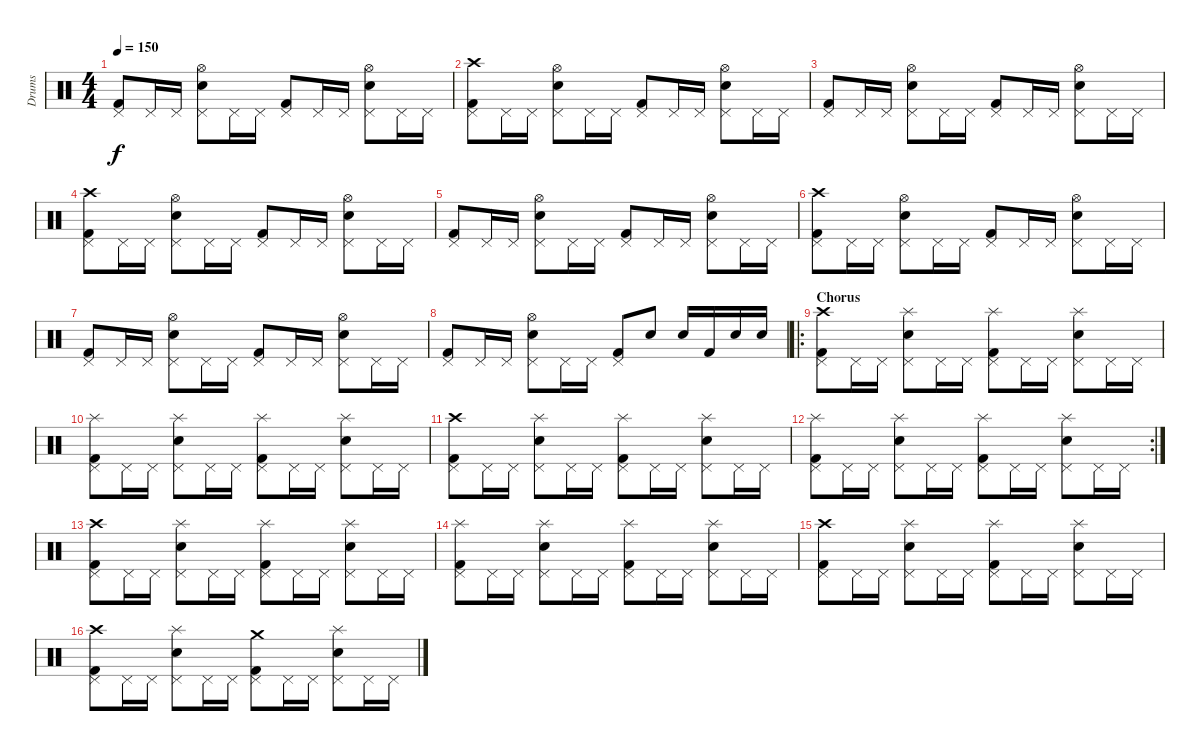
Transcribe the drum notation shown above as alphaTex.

\track ("Drums" "Drums") {instrument percussion}
\staff {score}
\articulation defaults
\ts (4 4)
\tempo 150
\clef neutral
\ks c
("Kick (hit) 2" "Pedal Hi-Hat (hit)").8{dy f} "Pedal Hi-Hat (hit)".16 "Pedal Hi-Hat (hit)".16 ("Snare (hit) 2" "Pedal Hi-Hat (hit)" "Hi-Hat (open)").8 "Pedal Hi-Hat (hit)".16 "Pedal Hi-Hat (hit)".16 ("Kick (hit) 2" "Pedal Hi-Hat (hit)").8 "Pedal Hi-Hat (hit)".16 "Pedal Hi-Hat (hit)".16 ("Snare (hit) 2" "Pedal Hi-Hat (hit)" "Hi-Hat (open)").8 "Pedal Hi-Hat (hit)".16 "Pedal Hi-Hat (hit)".16 |
("Kick (hit) 2" "Pedal Hi-Hat (hit)" "Crash high (hit)").8 "Pedal Hi-Hat (hit)".16 "Pedal Hi-Hat (hit)".16 ("Snare (hit) 2" "Pedal Hi-Hat (hit)" "Hi-Hat (open)").8 "Pedal Hi-Hat (hit)".16 "Pedal Hi-Hat (hit)".16 ("Kick (hit) 2" "Pedal Hi-Hat (hit)").8 "Pedal Hi-Hat (hit)".16 "Pedal Hi-Hat (hit)".16 ("Snare (hit) 2" "Pedal Hi-Hat (hit)" "Hi-Hat (open)").8 "Pedal Hi-Hat (hit)".16 "Pedal Hi-Hat (hit)".16 |
("Kick (hit) 2" "Pedal Hi-Hat (hit)").8 "Pedal Hi-Hat (hit)".16 "Pedal Hi-Hat (hit)".16 ("Snare (hit) 2" "Pedal Hi-Hat (hit)" "Hi-Hat (open)").8 "Pedal Hi-Hat (hit)".16 "Pedal Hi-Hat (hit)".16 ("Kick (hit) 2" "Pedal Hi-Hat (hit)").8 "Pedal Hi-Hat (hit)".16 "Pedal Hi-Hat (hit)".16 ("Snare (hit) 2" "Pedal Hi-Hat (hit)" "Hi-Hat (open)").8 "Pedal Hi-Hat (hit)".16 "Pedal Hi-Hat (hit)".16 |
("Kick (hit) 2" "Pedal Hi-Hat (hit)" "Crash high (hit)").8 "Pedal Hi-Hat (hit)".16 "Pedal Hi-Hat (hit)".16 ("Snare (hit) 2" "Pedal Hi-Hat (hit)" "Hi-Hat (open)").8 "Pedal Hi-Hat (hit)".16 "Pedal Hi-Hat (hit)".16 ("Kick (hit) 2" "Pedal Hi-Hat (hit)").8 "Pedal Hi-Hat (hit)".16 "Pedal Hi-Hat (hit)".16 ("Snare (hit) 2" "Pedal Hi-Hat (hit)" "Hi-Hat (open)").8 "Pedal Hi-Hat (hit)".16 "Pedal Hi-Hat (hit)".16 |
("Kick (hit) 2" "Pedal Hi-Hat (hit)").8 "Pedal Hi-Hat (hit)".16 "Pedal Hi-Hat (hit)".16 ("Snare (hit) 2" "Pedal Hi-Hat (hit)" "Hi-Hat (open)").8 "Pedal Hi-Hat (hit)".16 "Pedal Hi-Hat (hit)".16 ("Kick (hit) 2" "Pedal Hi-Hat (hit)").8 "Pedal Hi-Hat (hit)".16 "Pedal Hi-Hat (hit)".16 ("Snare (hit) 2" "Pedal Hi-Hat (hit)" "Hi-Hat (open)").8 "Pedal Hi-Hat (hit)".16 "Pedal Hi-Hat (hit)".16 |
("Kick (hit) 2" "Pedal Hi-Hat (hit)" "Crash high (hit)").8 "Pedal Hi-Hat (hit)".16 "Pedal Hi-Hat (hit)".16 ("Snare (hit) 2" "Pedal Hi-Hat (hit)" "Hi-Hat (open)").8 "Pedal Hi-Hat (hit)".16 "Pedal Hi-Hat (hit)".16 ("Kick (hit) 2" "Pedal Hi-Hat (hit)").8 "Pedal Hi-Hat (hit)".16 "Pedal Hi-Hat (hit)".16 ("Snare (hit) 2" "Pedal Hi-Hat (hit)" "Hi-Hat (open)").8 "Pedal Hi-Hat (hit)".16 "Pedal Hi-Hat (hit)".16 |
("Kick (hit) 2" "Pedal Hi-Hat (hit)").8 "Pedal Hi-Hat (hit)".16 "Pedal Hi-Hat (hit)".16 ("Snare (hit) 2" "Pedal Hi-Hat (hit)" "Hi-Hat (open)").8 "Pedal Hi-Hat (hit)".16 "Pedal Hi-Hat (hit)".16 ("Kick (hit) 2" "Pedal Hi-Hat (hit)").8 "Pedal Hi-Hat (hit)".16 "Pedal Hi-Hat (hit)".16 ("Snare (hit) 2" "Pedal Hi-Hat (hit)" "Hi-Hat (open)").8 "Pedal Hi-Hat (hit)".16 "Pedal Hi-Hat (hit)".16 |
("Kick (hit) 2" "Pedal Hi-Hat (hit)").8 "Pedal Hi-Hat (hit)".16 "Pedal Hi-Hat (hit)".16 ("Snare (hit) 2" "Pedal Hi-Hat (hit)" "Hi-Hat (open)").8 "Pedal Hi-Hat (hit)".16 "Pedal Hi-Hat (hit)".16 ("Kick (hit) 2" "Pedal Hi-Hat (hit)").8 "Snare (hit) 2".8 "Snare (hit) 2".16 "Kick (hit) 2".16 "Snare (hit) 2".16 "Snare (hit) 2".16 |
\ro
\section ("" "Chorus")
("Kick (hit) 2" "Pedal Hi-Hat (hit)" "Crash high (hit)").8 "Pedal Hi-Hat (hit)".16 "Pedal Hi-Hat (hit)".16 ("Snare (hit) 2" "Pedal Hi-Hat (hit)" "Splash (hit)").8 "Pedal Hi-Hat (hit)".16 "Pedal Hi-Hat (hit)".16 ("Kick (hit) 2" "Pedal Hi-Hat (hit)" "Splash (hit)").8 "Pedal Hi-Hat (hit)".16 "Pedal Hi-Hat (hit)".16 ("Snare (hit) 2" "Pedal Hi-Hat (hit)" "Splash (hit)").8 "Pedal Hi-Hat (hit)".16 "Pedal Hi-Hat (hit)".16 |
("Kick (hit) 2" "Pedal Hi-Hat (hit)" "Splash (hit)").8 "Pedal Hi-Hat (hit)".16 "Pedal Hi-Hat (hit)".16 ("Snare (hit) 2" "Pedal Hi-Hat (hit)" "Splash (hit)").8 "Pedal Hi-Hat (hit)".16 "Pedal Hi-Hat (hit)".16 ("Kick (hit) 2" "Pedal Hi-Hat (hit)" "Splash (hit)").8 "Pedal Hi-Hat (hit)".16 "Pedal Hi-Hat (hit)".16 ("Snare (hit) 2" "Pedal Hi-Hat (hit)" "Splash (hit)").8 "Pedal Hi-Hat (hit)".16 "Pedal Hi-Hat (hit)".16 |
("Kick (hit) 2" "Pedal Hi-Hat (hit)" "Crash high (hit)").8 "Pedal Hi-Hat (hit)".16 "Pedal Hi-Hat (hit)".16 ("Snare (hit) 2" "Pedal Hi-Hat (hit)" "Splash (hit)").8 "Pedal Hi-Hat (hit)".16 "Pedal Hi-Hat (hit)".16 ("Kick (hit) 2" "Pedal Hi-Hat (hit)" "Splash (hit)").8 "Pedal Hi-Hat (hit)".16 "Pedal Hi-Hat (hit)".16 ("Snare (hit) 2" "Pedal Hi-Hat (hit)" "Splash (hit)").8 "Pedal Hi-Hat (hit)".16 "Pedal Hi-Hat (hit)".16 |
\rc 2
("Kick (hit) 2" "Pedal Hi-Hat (hit)" "Splash (hit)").8 "Pedal Hi-Hat (hit)".16 "Pedal Hi-Hat (hit)".16 ("Snare (hit) 2" "Pedal Hi-Hat (hit)" "Splash (hit)").8 "Pedal Hi-Hat (hit)".16 "Pedal Hi-Hat (hit)".16 ("Kick (hit) 2" "Pedal Hi-Hat (hit)" "Splash (hit)").8 "Pedal Hi-Hat (hit)".16 "Pedal Hi-Hat (hit)".16 ("Snare (hit) 2" "Pedal Hi-Hat (hit)" "Splash (hit)").8 "Pedal Hi-Hat (hit)".16 "Pedal Hi-Hat (hit)".16 |
("Kick (hit) 2" "Pedal Hi-Hat (hit)" "Crash high (hit)").8 "Pedal Hi-Hat (hit)".16 "Pedal Hi-Hat (hit)".16 ("Snare (hit) 2" "Pedal Hi-Hat (hit)" "Splash (hit)").8 "Pedal Hi-Hat (hit)".16 "Pedal Hi-Hat (hit)".16 ("Kick (hit) 2" "Pedal Hi-Hat (hit)" "Splash (hit)").8 "Pedal Hi-Hat (hit)".16 "Pedal Hi-Hat (hit)".16 ("Snare (hit) 2" "Pedal Hi-Hat (hit)" "Splash (hit)").8 "Pedal Hi-Hat (hit)".16 "Pedal Hi-Hat (hit)".16 |
("Kick (hit) 2" "Pedal Hi-Hat (hit)" "Splash (hit)").8 "Pedal Hi-Hat (hit)".16 "Pedal Hi-Hat (hit)".16 ("Snare (hit) 2" "Pedal Hi-Hat (hit)" "Splash (hit)").8 "Pedal Hi-Hat (hit)".16 "Pedal Hi-Hat (hit)".16 ("Kick (hit) 2" "Pedal Hi-Hat (hit)" "Splash (hit)").8 "Pedal Hi-Hat (hit)".16 "Pedal Hi-Hat (hit)".16 ("Snare (hit) 2" "Pedal Hi-Hat (hit)" "Splash (hit)").8 "Pedal Hi-Hat (hit)".16 "Pedal Hi-Hat (hit)".16 |
("Kick (hit) 2" "Pedal Hi-Hat (hit)" "Crash high (hit)").8 "Pedal Hi-Hat (hit)".16 "Pedal Hi-Hat (hit)".16 ("Snare (hit) 2" "Pedal Hi-Hat (hit)" "Splash (hit)").8 "Pedal Hi-Hat (hit)".16 "Pedal Hi-Hat (hit)".16 ("Kick (hit) 2" "Pedal Hi-Hat (hit)" "Splash (hit)").8 "Pedal Hi-Hat (hit)".16 "Pedal Hi-Hat (hit)".16 ("Snare (hit) 2" "Pedal Hi-Hat (hit)" "Splash (hit)").8 "Pedal Hi-Hat (hit)".16 "Pedal Hi-Hat (hit)".16 |
("Kick (hit) 2" "Pedal Hi-Hat (hit)" "Crash high (hit)").8 "Pedal Hi-Hat (hit)".16 "Pedal Hi-Hat (hit)".16 ("Snare (hit) 2" "Pedal Hi-Hat (hit)" "Splash (hit)").8 "Pedal Hi-Hat (hit)".16 "Pedal Hi-Hat (hit)".16 ("Kick (hit) 2" "Pedal Hi-Hat (hit)" "Crash medium (hit)").8 "Pedal Hi-Hat (hit)".16 "Pedal Hi-Hat (hit)".16 ("Snare (hit) 2" "Pedal Hi-Hat (hit)" "Splash (hit)").8 "Pedal Hi-Hat (hit)".16 "Pedal Hi-Hat (hit)".16
